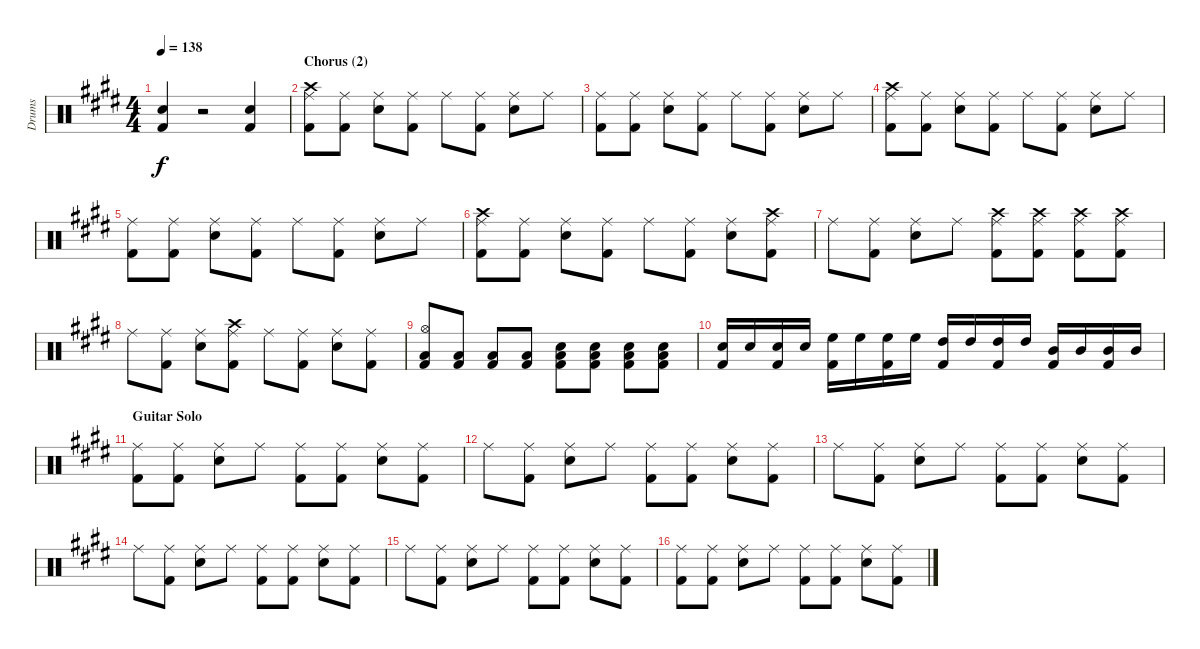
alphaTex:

\track ("Drums" "Drums") {instrument percussion}
\staff {score}
\articulation defaults
\ts (4 4)
\tempo 138
\clef neutral
\ks e
("Snare (hit) 2" "Kick (hit) 2").4{dy f} r.2 ("Snare (hit) 2" "Kick (hit) 2").4 |
\section ("" "Chorus (2)")
("Crash high (hit)" "Kick (hit) 2" "Ride (middle)").8 ("Kick (hit) 2" "Ride (middle)").8 ("Snare (hit) 2" "Ride (middle)").8 ("Kick (hit) 2" "Ride (middle)").8 "Ride (middle)".8 ("Kick (hit) 2" "Ride (middle)").8 ("Snare (hit) 2" "Ride (middle)").8 "Ride (middle)".8 |
("Kick (hit) 2" "Ride (middle)").8 ("Kick (hit) 2" "Ride (middle)").8 ("Snare (hit) 2" "Ride (middle)").8 ("Kick (hit) 2" "Ride (middle)").8 "Ride (middle)".8 ("Kick (hit) 2" "Ride (middle)").8 ("Snare (hit) 2" "Ride (middle)").8 "Ride (middle)".8 |
("Crash high (hit)" "Kick (hit) 2" "Ride (middle)").8 ("Kick (hit) 2" "Ride (middle)").8 ("Snare (hit) 2" "Ride (middle)").8 ("Kick (hit) 2" "Ride (middle)").8 "Ride (middle)".8 ("Kick (hit) 2" "Ride (middle)").8 ("Snare (hit) 2" "Ride (middle)").8 "Ride (middle)".8 |
("Kick (hit) 2" "Ride (middle)").8 ("Kick (hit) 2" "Ride (middle)").8 ("Snare (hit) 2" "Ride (middle)").8 ("Kick (hit) 2" "Ride (middle)").8 "Ride (middle)".8 ("Kick (hit) 2" "Ride (middle)").8 ("Snare (hit) 2" "Ride (middle)").8 "Ride (middle)".8 |
("Crash high (hit)" "Kick (hit) 2" "Ride (middle)").8 ("Kick (hit) 2" "Ride (middle)").8 ("Snare (hit) 2" "Ride (middle)").8 ("Kick (hit) 2" "Ride (middle)").8 "Ride (middle)".8 ("Kick (hit) 2" "Ride (middle)").8 ("Snare (hit) 2" "Ride (middle)").8 ("Crash high (hit)" "Kick (hit) 2" "Ride (middle)").8 |
"Ride (middle)".8 ("Kick (hit) 2" "Ride (middle)").8 ("Snare (hit) 2" "Ride (middle)").8 "Ride (middle)".8 ("Crash high (hit)" "Kick (hit) 2" "Ride (middle)").8 ("Crash high (hit)" "Kick (hit) 2" "Ride (middle)").8 ("Crash high (hit)" "Kick (hit) 2" "Ride (middle)").8 ("Crash high (hit)" "Kick (hit) 2" "Ride (middle)").8 |
"Ride (middle)".8 ("Kick (hit) 2" "Ride (middle)").8 ("Snare (hit) 2" "Ride (middle)").8 ("Crash high (hit)" "Kick (hit) 2" "Ride (middle)").8 "Ride (middle)".8 ("Kick (hit) 2" "Ride (middle)").8 ("Snare (hit) 2" "Ride (middle)").8 ("Kick (hit) 2" "Ride (middle)").8 |
("Hi-Hat (open)" "Low Floor Tom (hit)" "Kick (hit) 2").8 ("Low Floor Tom (hit)" "Kick (hit) 2").8 ("Low Floor Tom (hit)" "Kick (hit) 2").8 ("Low Floor Tom (hit)" "Kick (hit) 2").8 ("Low Floor Tom (hit)" "Kick (hit) 2" "Snare (hit) 2").8 ("Low Floor Tom (hit)" "Kick (hit) 2" "Snare (hit) 2").8 ("Low Floor Tom (hit)" "Kick (hit) 2" "Snare (hit) 2").8 ("Low Floor Tom (hit)" "Kick (hit) 2" "Snare (hit) 2").8 |
("Kick (hit) 2" "Snare (hit) 2").16 "Snare (hit) 2".16 ("Kick (hit) 2" "Snare (hit) 2").16 "Snare (hit) 2".16 ("Kick (hit) 2" "High Floor Tom (hit)").16 "High Floor Tom (hit)".16 ("Kick (hit) 2" "High Floor Tom (hit)").16 "High Floor Tom (hit)".16 ("Kick (hit) 2" "High Tom (hit)").16 "High Tom (hit)".16 ("Kick (hit) 2" "High Tom (hit)").16 "High Tom (hit)".16 ("Kick (hit) 2" "Mid Tom (hit)").16 "Mid Tom (hit)".16 ("Kick (hit) 2" "Mid Tom (hit)").16 "Mid Tom (hit)".16 |
\section ("" "Guitar Solo")
("Kick (hit) 2" "Ride (middle)").8 ("Kick (hit) 2" "Ride (middle)").8 ("Snare (hit) 2" "Ride (middle)").8 "Ride (middle)".8 ("Kick (hit) 2" "Ride (middle)").8 ("Kick (hit) 2" "Ride (middle)").8 ("Snare (hit) 2" "Ride (middle)").8 ("Kick (hit) 2" "Ride (middle)").8 |
"Ride (middle)".8 ("Kick (hit) 2" "Ride (middle)").8 ("Snare (hit) 2" "Ride (middle)").8 "Ride (middle)".8 ("Kick (hit) 2" "Ride (middle)").8 ("Kick (hit) 2" "Ride (middle)").8 ("Snare (hit) 2" "Ride (middle)").8 ("Kick (hit) 2" "Ride (middle)").8 |
"Ride (middle)".8 ("Kick (hit) 2" "Ride (middle)").8 ("Snare (hit) 2" "Ride (middle)").8 "Ride (middle)".8 ("Kick (hit) 2" "Ride (middle)").8 ("Kick (hit) 2" "Ride (middle)").8 ("Snare (hit) 2" "Ride (middle)").8 ("Kick (hit) 2" "Ride (middle)").8 |
"Ride (middle)".8 ("Kick (hit) 2" "Ride (middle)").8 ("Snare (hit) 2" "Ride (middle)").8 "Ride (middle)".8 ("Kick (hit) 2" "Ride (middle)").8 ("Kick (hit) 2" "Ride (middle)").8 ("Snare (hit) 2" "Ride (middle)").8 ("Kick (hit) 2" "Ride (middle)").8 |
"Ride (middle)".8 ("Kick (hit) 2" "Ride (middle)").8 ("Snare (hit) 2" "Ride (middle)").8 "Ride (middle)".8 ("Kick (hit) 2" "Ride (middle)").8 ("Kick (hit) 2" "Ride (middle)").8 ("Snare (hit) 2" "Ride (middle)").8 ("Kick (hit) 2" "Ride (middle)").8 |
("Kick (hit) 2" "Ride (middle)").8 ("Kick (hit) 2" "Ride (middle)").8 ("Snare (hit) 2" "Ride (middle)").8 "Ride (middle)".8 ("Kick (hit) 2" "Ride (middle)").8 ("Kick (hit) 2" "Ride (middle)").8 ("Snare (hit) 2" "Ride (middle)").8 ("Kick (hit) 2" "Ride (middle)").8
